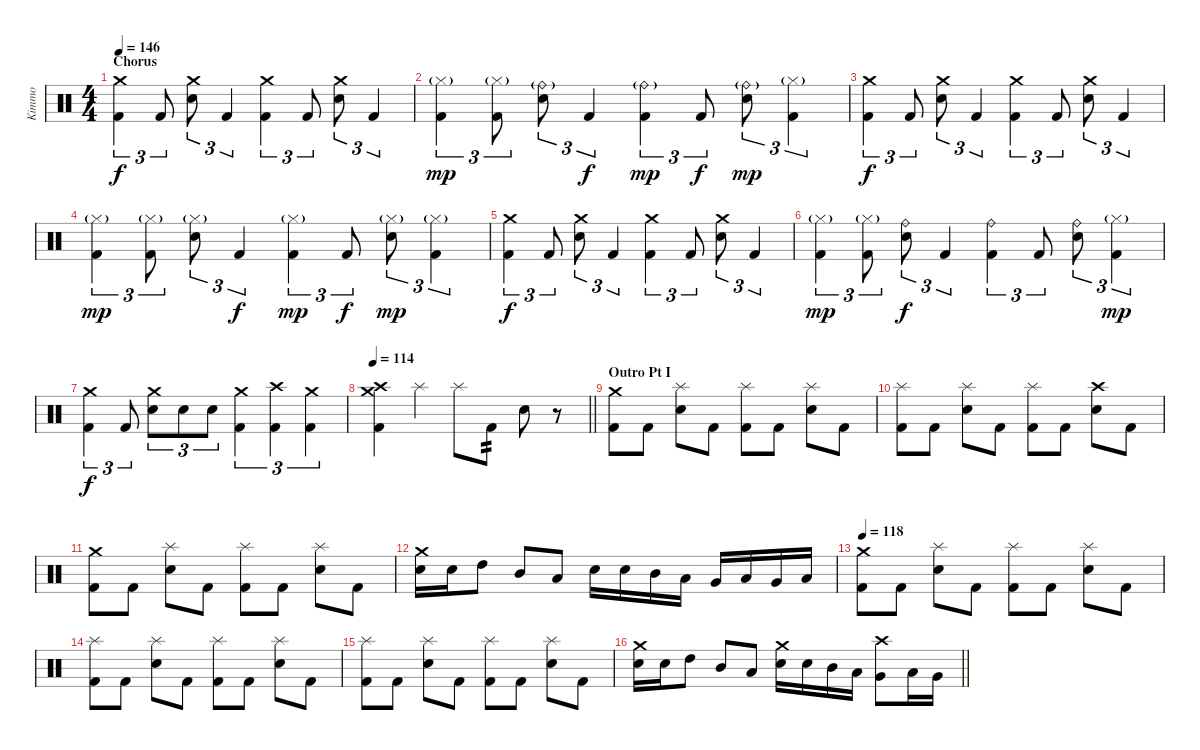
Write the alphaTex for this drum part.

\track ("Kimmo" "Kimmo") {instrument percussion}
\staff {score}
\articulation defaults
\ts (4 4)
\section ("" "Chorus")
\tempo 146
\clef neutral
\ks c
("Kick (hit) 2" "Crash medium (hit)").4{tu (3 2) dy f} "Kick (hit) 2".8{tu (3 2)} ("Snare (hit) 2" "Crash medium (hit)").8{tu (3 2)} "Kick (hit) 2".4{tu (3 2)} ("Kick (hit) 2" "Crash medium (hit)").4{tu (3 2)} "Kick (hit) 2".8{tu (3 2)} ("Snare (hit) 2" "Crash medium (hit)").8{tu (3 2)} "Kick (hit) 2".4{tu (3 2)} |
("Kick (hit) 2" "Hi-Hat (closed)"{g}).4{tu (3 2) dy mp} ("Kick (hit) 2" "Hi-Hat (closed)"{g}).8{tu (3 2)} ("Snare (hit) 2" "Ride (bell)"{g}).8{tu (3 2)} "Kick (hit) 2".4{tu (3 2) dy f} ("Kick (hit) 2" "Ride (bell)"{g}).4{tu (3 2) dy mp} "Kick (hit) 2".8{tu (3 2) dy f} ("Snare (hit) 2" "Ride (bell)"{g}).8{tu (3 2) dy mp} ("Kick (hit) 2" "Hi-Hat (closed)"{g}).4{tu (3 2)} |
("Kick (hit) 2" "Crash medium (hit)").4{tu (3 2) dy f} "Kick (hit) 2".8{tu (3 2)} ("Snare (hit) 2" "Crash medium (hit)").8{tu (3 2)} "Kick (hit) 2".4{tu (3 2)} ("Kick (hit) 2" "Crash medium (hit)").4{tu (3 2)} "Kick (hit) 2".8{tu (3 2)} ("Snare (hit) 2" "Crash medium (hit)").8{tu (3 2)} "Kick (hit) 2".4{tu (3 2)} |
("Kick (hit) 2" "Hi-Hat (closed)"{g}).4{tu (3 2) dy mp} ("Kick (hit) 2" "Hi-Hat (closed)"{g}).8{tu (3 2)} ("Snare (hit) 2" "Hi-Hat (closed)"{g}).8{tu (3 2)} "Kick (hit) 2".4{tu (3 2) dy f} ("Kick (hit) 2" "Hi-Hat (closed)"{g}).4{tu (3 2) dy mp} "Kick (hit) 2".8{tu (3 2) dy f} ("Snare (hit) 2" "Hi-Hat (closed)"{g}).8{tu (3 2) dy mp} ("Kick (hit) 2" "Hi-Hat (closed)"{g}).4{tu (3 2)} |
("Kick (hit) 2" "Crash medium (hit)").4{tu (3 2) dy f} "Kick (hit) 2".8{tu (3 2)} ("Snare (hit) 2" "Crash medium (hit)").8{tu (3 2)} "Kick (hit) 2".4{tu (3 2)} ("Kick (hit) 2" "Crash medium (hit)").4{tu (3 2)} "Kick (hit) 2".8{tu (3 2)} ("Snare (hit) 2" "Crash medium (hit)").8{tu (3 2)} "Kick (hit) 2".4{tu (3 2)} |
("Kick (hit) 2" "Hi-Hat (closed)"{g}).4{tu (3 2) dy mp} ("Kick (hit) 2" "Hi-Hat (closed)"{g}).8{tu (3 2)} ("Snare (hit) 2" "Ride (bell)").8{tu (3 2) dy f} "Kick (hit) 2".4{tu (3 2)} ("Kick (hit) 2" "Ride (bell)").4{tu (3 2)} "Kick (hit) 2".8{tu (3 2)} ("Snare (hit) 2" "Ride (bell)").8{tu (3 2)} ("Kick (hit) 2" "Hi-Hat (closed)"{g}).4{tu (3 2) dy mp} |
("Kick (hit) 2" "Crash medium (hit)").4{tu (3 2) dy f} "Kick (hit) 2".8{tu (3 2)} ("Snare (hit) 2" "Crash medium (hit)").8{tu (3 2)} "Snare (hit) 2".8{tu (3 2)} "Snare (hit) 2".8{tu (3 2)} ("Kick (hit) 2" "Crash medium (hit)").4{tu (3 2)} ("Kick (hit) 2" "Crash high (hit)").4{tu (3 2)} ("Kick (hit) 2" "Crash medium (hit)").4{tu (3 2)} |
\tempo 114
\barLineRight lightlight
("Kick (hit) 2" "Crash medium (hit)" "Crash high (hit)").4 "Splash (hit)".4 "Splash (hit)".8 "Kick (hit) 2".8{tp 2} "Snare (hit) 2".8 r.8 |
\section ("" "Outro Pt I")
("Kick (hit) 2" "Crash medium (hit)").8 "Kick (hit) 2".8 ("Snare (hit) 2" "Splash (hit)").8 "Kick (hit) 2".8 ("Kick (hit) 2" "Splash (hit)").8 "Kick (hit) 2".8 ("Snare (hit) 2" "Splash (hit)").8 "Kick (hit) 2".8 |
("Kick (hit) 2" "Splash (hit)").8 "Kick (hit) 2".8 ("Snare (hit) 2" "Splash (hit)").8 "Kick (hit) 2".8 ("Kick (hit) 2" "Splash (hit)").8 "Kick (hit) 2".8 ("Snare (hit) 2" "Crash high (hit)").8 "Kick (hit) 2".8 |
("Kick (hit) 2" "Crash medium (hit)").8 "Kick (hit) 2".8 ("Snare (hit) 2" "Splash (hit)").8 "Kick (hit) 2".8 ("Kick (hit) 2" "Splash (hit)").8 "Kick (hit) 2".8 ("Snare (hit) 2" "Splash (hit)").8 "Kick (hit) 2".8 |
("Snare (hit) 2" "Crash medium (hit)").16 "Snare (hit) 2".16 "High Tom (hit)".8 "Mid Tom (hit)".8 "Low Tom (hit)".8 "Snare (hit) 2".16 "Snare (hit) 2".16 "Mid Tom (hit)".16 "Low Tom (hit)".16 "Very Low Tom (hit)".16 "Low Tom (hit)".16 "Very Low Tom (hit)".16 "Low Floor Tom (hit)".16 |
\tempo 118
("Kick (hit) 2" "Crash medium (hit)").8 "Kick (hit) 2".8 ("Snare (hit) 2" "Splash (hit)").8 "Kick (hit) 2".8 ("Kick (hit) 2" "Splash (hit)").8 "Kick (hit) 2".8 ("Snare (hit) 2" "Splash (hit)").8 "Kick (hit) 2".8 |
("Kick (hit) 2" "Splash (hit)").8 "Kick (hit) 2".8 ("Snare (hit) 2" "Splash (hit)").8 "Kick (hit) 2".8 ("Kick (hit) 2" "Splash (hit)").8 "Kick (hit) 2".8 ("Snare (hit) 2" "Splash (hit)").8 "Kick (hit) 2".8 |
("Kick (hit) 2" "Splash (hit)").8 "Kick (hit) 2".8 ("Snare (hit) 2" "Splash (hit)").8 "Kick (hit) 2".8 ("Kick (hit) 2" "Splash (hit)").8 "Kick (hit) 2".8 ("Snare (hit) 2" "Splash (hit)").8 "Kick (hit) 2".8 |
\barLineRight lightlight
("Snare (hit) 2" "Crash medium (hit)").16 "Snare (hit) 2".16 "High Tom (hit)".8 "Mid Tom (hit)".8 "Low Tom (hit)".8 ("Snare (hit) 2" "Crash medium (hit)").16 "Snare (hit) 2".16 "Mid Tom (hit)".16 "Low Tom (hit)".16 ("Very Low Tom (hit)" "Crash high (hit)").8 "Low Tom (hit)".16 "Very Low Tom (hit)".16
